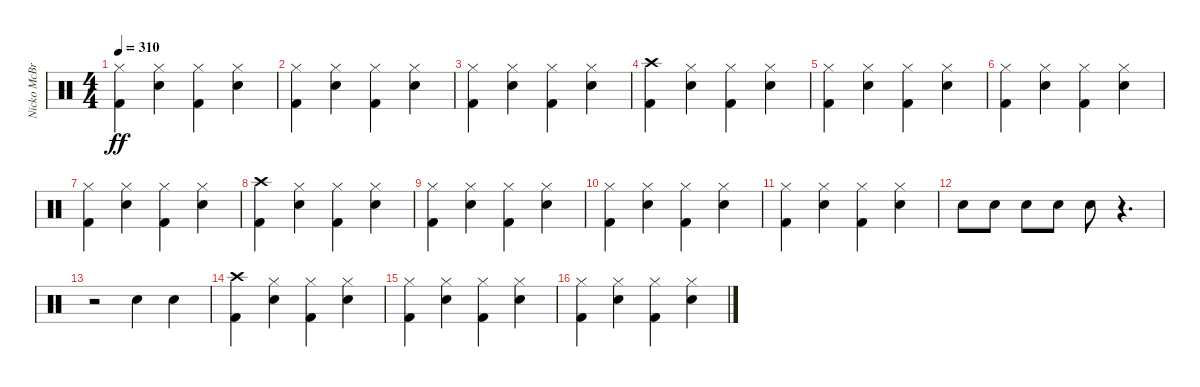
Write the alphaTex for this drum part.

\track ("Nicko McBrain" "Nicko McBr") {instrument percussion}
\staff {score}
\articulation defaults
\ts (4 4)
\tempo 310
\clef neutral
\ks c
("Kick (hit) 2" "Hi-Hat (closed)").4{dy ff} ("Snare (hit) 2" "Hi-Hat (closed)").4 ("Kick (hit) 2" "Hi-Hat (closed)").4 ("Snare (hit) 2" "Hi-Hat (closed)").4 |
("Kick (hit) 2" "Hi-Hat (closed)").4 ("Snare (hit) 2" "Hi-Hat (closed)").4 ("Kick (hit) 2" "Hi-Hat (closed)").4 ("Snare (hit) 2" "Hi-Hat (closed)").4 |
("Kick (hit) 2" "Hi-Hat (closed)").4 ("Snare (hit) 2" "Hi-Hat (closed)").4 ("Kick (hit) 2" "Hi-Hat (closed)").4 ("Snare (hit) 2" "Hi-Hat (closed)").4 |
("Kick (hit) 2" "Crash high (hit)").4 ("Snare (hit) 2" "Hi-Hat (closed)").4 ("Kick (hit) 2" "Hi-Hat (closed)").4 ("Snare (hit) 2" "Hi-Hat (closed)").4 |
("Kick (hit) 2" "Hi-Hat (closed)").4 ("Snare (hit) 2" "Hi-Hat (closed)").4 ("Kick (hit) 2" "Hi-Hat (closed)").4 ("Snare (hit) 2" "Hi-Hat (closed)").4 |
("Kick (hit) 2" "Hi-Hat (closed)").4 ("Snare (hit) 2" "Hi-Hat (closed)").4 ("Kick (hit) 2" "Hi-Hat (closed)").4 ("Snare (hit) 2" "Hi-Hat (closed)").4 |
("Kick (hit) 2" "Hi-Hat (closed)").4 ("Snare (hit) 2" "Hi-Hat (closed)").4 ("Kick (hit) 2" "Hi-Hat (closed)").4 ("Snare (hit) 2" "Hi-Hat (closed)").4 |
("Kick (hit) 2" "Crash high (hit)").4 ("Snare (hit) 2" "Hi-Hat (closed)").4 ("Kick (hit) 2" "Hi-Hat (closed)").4 ("Snare (hit) 2" "Hi-Hat (closed)").4 |
("Kick (hit) 2" "Hi-Hat (closed)").4 ("Snare (hit) 2" "Hi-Hat (closed)").4 ("Kick (hit) 2" "Hi-Hat (closed)").4 ("Snare (hit) 2" "Hi-Hat (closed)").4 |
("Kick (hit) 2" "Hi-Hat (closed)").4 ("Snare (hit) 2" "Hi-Hat (closed)").4 ("Kick (hit) 2" "Hi-Hat (closed)").4 ("Snare (hit) 2" "Hi-Hat (closed)").4 |
("Kick (hit) 2" "Hi-Hat (closed)").4 ("Snare (hit) 2" "Hi-Hat (closed)").4 ("Kick (hit) 2" "Hi-Hat (closed)").4 ("Snare (hit) 2" "Hi-Hat (closed)").4 |
"Snare (hit) 2".8 "Snare (hit) 2".8 "Snare (hit) 2".8 "Snare (hit) 2".8 "Snare (hit) 2".8 r.4{d} |
r.2 "Snare (hit) 2".4 "Snare (hit) 2".4 |
("Kick (hit) 2" "Crash high (hit)").4 ("Snare (hit) 2" "Hi-Hat (closed)").4 ("Kick (hit) 2" "Hi-Hat (closed)").4 ("Snare (hit) 2" "Hi-Hat (closed)").4 |
("Kick (hit) 2" "Hi-Hat (closed)").4 ("Snare (hit) 2" "Hi-Hat (closed)").4 ("Kick (hit) 2" "Hi-Hat (closed)").4 ("Snare (hit) 2" "Hi-Hat (closed)").4 |
("Kick (hit) 2" "Hi-Hat (closed)").4 ("Snare (hit) 2" "Hi-Hat (closed)").4 ("Kick (hit) 2" "Hi-Hat (closed)").4 ("Snare (hit) 2" "Hi-Hat (closed)").4
